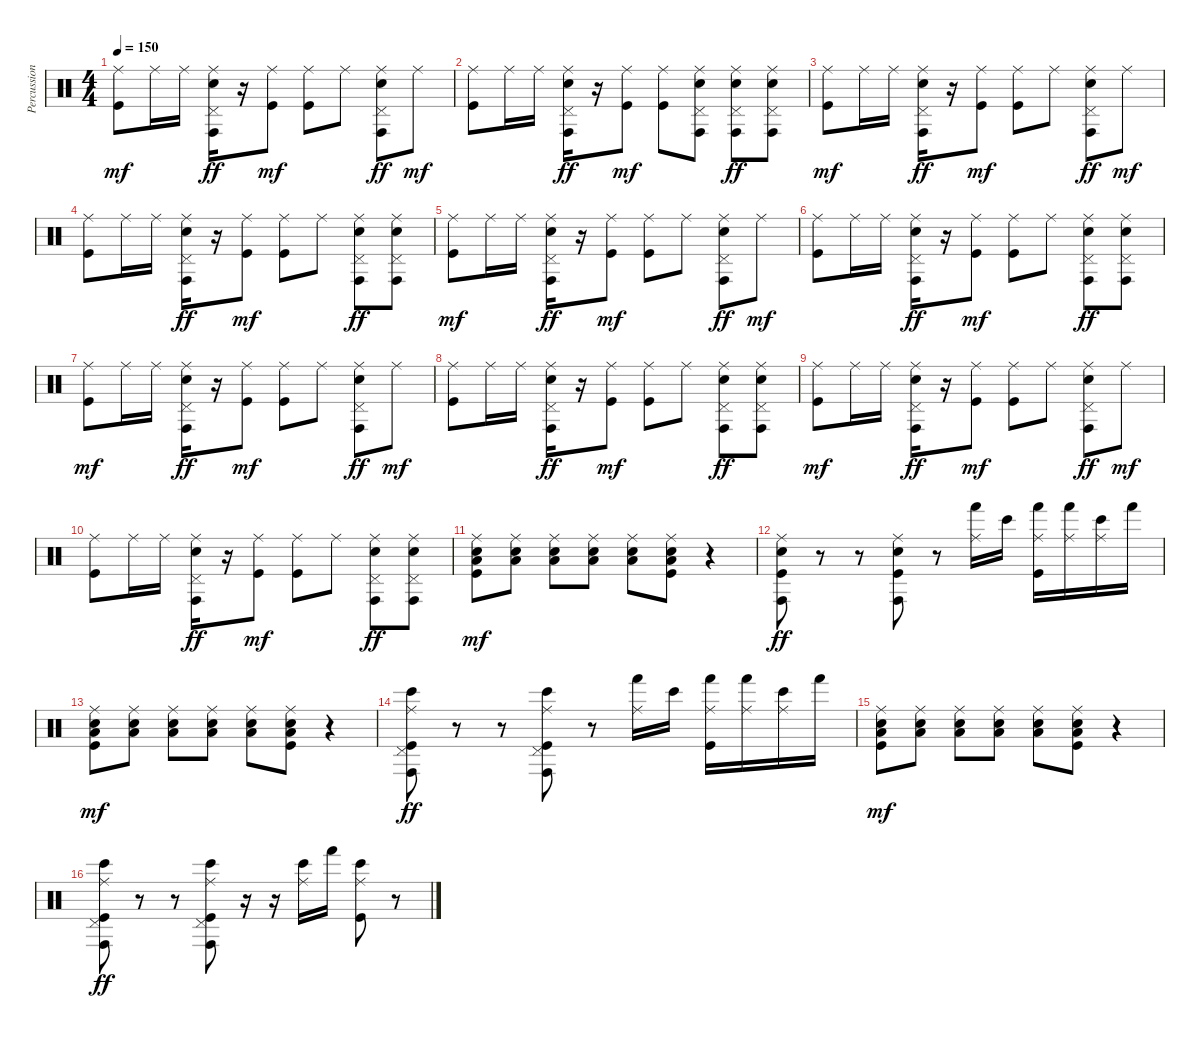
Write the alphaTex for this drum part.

\track ("Percussion" "Percussion") {instrument percussion}
\staff {score}
\articulation defaults
\ts (4 4)
\tempo 150
\clef neutral
\ks c
("Ride (middle)" "Kick (hit)").8{dy mf} "Ride (middle)".16 "Ride (middle)".16 ("Ride (middle)" "Pedal Hi-Hat (hit)" "Conga high (hit)" "Electric Snare (hit)").16{dy ff} r.16 ("Ride (middle)" "Kick (hit)").8{dy mf} ("Ride (middle)" "Kick (hit)").8 "Ride (middle)".8 ("Ride (middle)" "Pedal Hi-Hat (hit)" "Conga high (hit)" "Electric Snare (hit)").8{dy ff} "Ride (middle)".8{dy mf} |
("Ride (middle)" "Kick (hit)").8 "Ride (middle)".16 "Ride (middle)".16 ("Ride (middle)" "Pedal Hi-Hat (hit)" "Conga high (hit)" "Electric Snare (hit)").16{dy ff} r.16 ("Ride (middle)" "Kick (hit)").8{dy mf} ("Ride (middle)" "Kick (hit)").8 ("Ride (middle)" "Pedal Hi-Hat (hit)" "Conga high (hit)" "Electric Snare (hit)").8 ("Ride (middle)" "Pedal Hi-Hat (hit)" "Conga high (hit)" "Electric Snare (hit)").8{dy ff} ("Ride (middle)" "Pedal Hi-Hat (hit)" "Conga high (hit)" "Electric Snare (hit)").8 |
("Ride (middle)" "Kick (hit)").8{dy mf} "Ride (middle)".16 "Ride (middle)".16 ("Ride (middle)" "Pedal Hi-Hat (hit)" "Conga high (hit)" "Electric Snare (hit)").16{dy ff} r.16 ("Ride (middle)" "Kick (hit)").8{dy mf} ("Ride (middle)" "Kick (hit)").8 "Ride (middle)".8 ("Ride (middle)" "Pedal Hi-Hat (hit)" "Conga high (hit)" "Electric Snare (hit)").8{dy ff} "Ride (middle)".8{dy mf} |
("Ride (middle)" "Kick (hit)").8 "Ride (middle)".16 "Ride (middle)".16 ("Ride (middle)" "Pedal Hi-Hat (hit)" "Conga high (hit)" "Electric Snare (hit)").16{dy ff} r.16 ("Ride (middle)" "Kick (hit)").8{dy mf} ("Ride (middle)" "Kick (hit)").8 "Ride (middle)".8 ("Ride (middle)" "Pedal Hi-Hat (hit)" "Conga high (hit)" "Electric Snare (hit)").8{dy ff} ("Ride (middle)" "Pedal Hi-Hat (hit)" "Conga high (hit)" "Electric Snare (hit)").8 |
("Ride (middle)" "Kick (hit)").8{dy mf} "Ride (middle)".16 "Ride (middle)".16 ("Ride (middle)" "Pedal Hi-Hat (hit)" "Conga high (hit)" "Electric Snare (hit)").16{dy ff} r.16 ("Ride (middle)" "Kick (hit)").8{dy mf} ("Ride (middle)" "Kick (hit)").8 "Ride (middle)".8 ("Ride (middle)" "Pedal Hi-Hat (hit)" "Conga high (hit)" "Electric Snare (hit)").8{dy ff} "Ride (middle)".8{dy mf} |
("Ride (middle)" "Kick (hit)").8 "Ride (middle)".16 "Ride (middle)".16 ("Ride (middle)" "Pedal Hi-Hat (hit)" "Conga high (hit)" "Electric Snare (hit)").16{dy ff} r.16 ("Ride (middle)" "Kick (hit)").8{dy mf} ("Ride (middle)" "Kick (hit)").8 "Ride (middle)".8 ("Ride (middle)" "Pedal Hi-Hat (hit)" "Conga high (hit)" "Electric Snare (hit)").8{dy ff} ("Ride (middle)" "Pedal Hi-Hat (hit)" "Conga high (hit)" "Electric Snare (hit)").8 |
("Ride (middle)" "Kick (hit)").8{dy mf} "Ride (middle)".16 "Ride (middle)".16 ("Ride (middle)" "Pedal Hi-Hat (hit)" "Conga high (hit)" "Electric Snare (hit)").16{dy ff} r.16 ("Ride (middle)" "Kick (hit)").8{dy mf} ("Ride (middle)" "Kick (hit)").8 "Ride (middle)".8 ("Ride (middle)" "Pedal Hi-Hat (hit)" "Conga high (hit)" "Electric Snare (hit)").8{dy ff} "Ride (middle)".8{dy mf} |
("Ride (middle)" "Kick (hit)").8 "Ride (middle)".16 "Ride (middle)".16 ("Ride (middle)" "Pedal Hi-Hat (hit)" "Conga high (hit)" "Electric Snare (hit)").16{dy ff} r.16 ("Ride (middle)" "Kick (hit)").8{dy mf} ("Ride (middle)" "Kick (hit)").8 "Ride (middle)".8 ("Ride (middle)" "Pedal Hi-Hat (hit)" "Conga high (hit)" "Electric Snare (hit)").8{dy ff} ("Ride (middle)" "Pedal Hi-Hat (hit)" "Conga high (hit)" "Electric Snare (hit)").8 |
("Ride (middle)" "Kick (hit)").8{dy mf} "Ride (middle)".16 "Ride (middle)".16 ("Ride (middle)" "Pedal Hi-Hat (hit)" "Conga high (hit)" "Electric Snare (hit)").16{dy ff} r.16 ("Ride (middle)" "Kick (hit)").8{dy mf} ("Ride (middle)" "Kick (hit)").8 "Ride (middle)".8 ("Ride (middle)" "Pedal Hi-Hat (hit)" "Conga high (hit)" "Electric Snare (hit)").8{dy ff} "Ride (middle)".8{dy mf} |
("Ride (middle)" "Kick (hit)").8 "Ride (middle)".16 "Ride (middle)".16 ("Ride (middle)" "Pedal Hi-Hat (hit)" "Conga high (hit)" "Electric Snare (hit)").16{dy ff} r.16 ("Ride (middle)" "Kick (hit)").8{dy mf} ("Ride (middle)" "Kick (hit)").8 "Ride (middle)".8 ("Ride (middle)" "Pedal Hi-Hat (hit)" "Conga high (hit)" "Electric Snare (hit)").8{dy ff} ("Ride (middle)" "Pedal Hi-Hat (hit)" "Conga high (hit)" "Electric Snare (hit)").8 |
("Ride (middle)" "Low Floor Tom (hit)" "Electric Snare (hit)" "Kick (hit)").8{dy mf} ("Ride (middle)" "Low Floor Tom (hit)" "Electric Snare (hit)").8 ("Ride (middle)" "Low Floor Tom (hit)" "Electric Snare (hit)").8 ("Ride (middle)" "Low Floor Tom (hit)" "Electric Snare (hit)").8 ("Ride (middle)" "Low Floor Tom (hit)" "Electric Snare (hit)").8 ("Ride (middle)" "Low Floor Tom (hit)" "Electric Snare (hit)" "Kick (hit)").8 r.4 |
("Ride (middle)" "Conga high (hit)" "Electric Snare (hit)" "Kick (hit)").8{dy ff} r.8 r.8 ("Ride (middle)" "Conga high (hit)" "Electric Snare (hit)" "Kick (hit)").8 r.8 ("Ride (middle)" "Hand (hit)").16 "Bongo High (hit)".16 ("Ride (middle)" "Hand (hit)" "Kick (hit)").16 ("Ride (middle)" "Hand (hit)").16 ("Ride (middle)" "Bongo High (hit)").16 "Hand (hit)".16 |
("Ride (middle)" "Low Floor Tom (hit)" "Electric Snare (hit)" "Kick (hit)").8{dy mf} ("Ride (middle)" "Low Floor Tom (hit)" "Electric Snare (hit)").8 ("Ride (middle)" "Low Floor Tom (hit)" "Electric Snare (hit)").8 ("Ride (middle)" "Low Floor Tom (hit)" "Electric Snare (hit)").8 ("Ride (middle)" "Low Floor Tom (hit)" "Electric Snare (hit)").8 ("Ride (middle)" "Low Floor Tom (hit)" "Electric Snare (hit)" "Kick (hit)").8 r.4 |
("Ride (middle)" "Pedal Hi-Hat (hit)" "Conga high (hit)" "Bongo High (hit)" "Kick (hit)").8{dy ff} r.8 r.8 ("Ride (middle)" "Pedal Hi-Hat (hit)" "Conga high (hit)" "Bongo High (hit)" "Kick (hit)").8 r.8 ("Ride (middle)" "Hand (hit)").16 "Bongo High (hit)".16 ("Ride (middle)" "Hand (hit)" "Kick (hit)").16 ("Ride (middle)" "Hand (hit)").16 ("Ride (middle)" "Bongo High (hit)").16 "Hand (hit)".16 |
("Ride (middle)" "Low Floor Tom (hit)" "Electric Snare (hit)" "Kick (hit)").8{dy mf} ("Ride (middle)" "Low Floor Tom (hit)" "Electric Snare (hit)").8 ("Ride (middle)" "Low Floor Tom (hit)" "Electric Snare (hit)").8 ("Ride (middle)" "Low Floor Tom (hit)" "Electric Snare (hit)").8 ("Ride (middle)" "Low Floor Tom (hit)" "Electric Snare (hit)").8 ("Ride (middle)" "Low Floor Tom (hit)" "Electric Snare (hit)" "Kick (hit)").8 r.4 |
("Ride (middle)" "Pedal Hi-Hat (hit)" "Conga high (hit)" "Bongo High (hit)" "Kick (hit)").8{dy ff} r.8 r.8 ("Ride (middle)" "Pedal Hi-Hat (hit)" "Conga high (hit)" "Bongo High (hit)" "Kick (hit)").8 r.16 r.16 ("Ride (middle)" "Bongo High (hit)").16 "Hand (hit)".16 ("Ride (middle)" "Bongo High (hit)" "Kick (hit)").8 r.8
